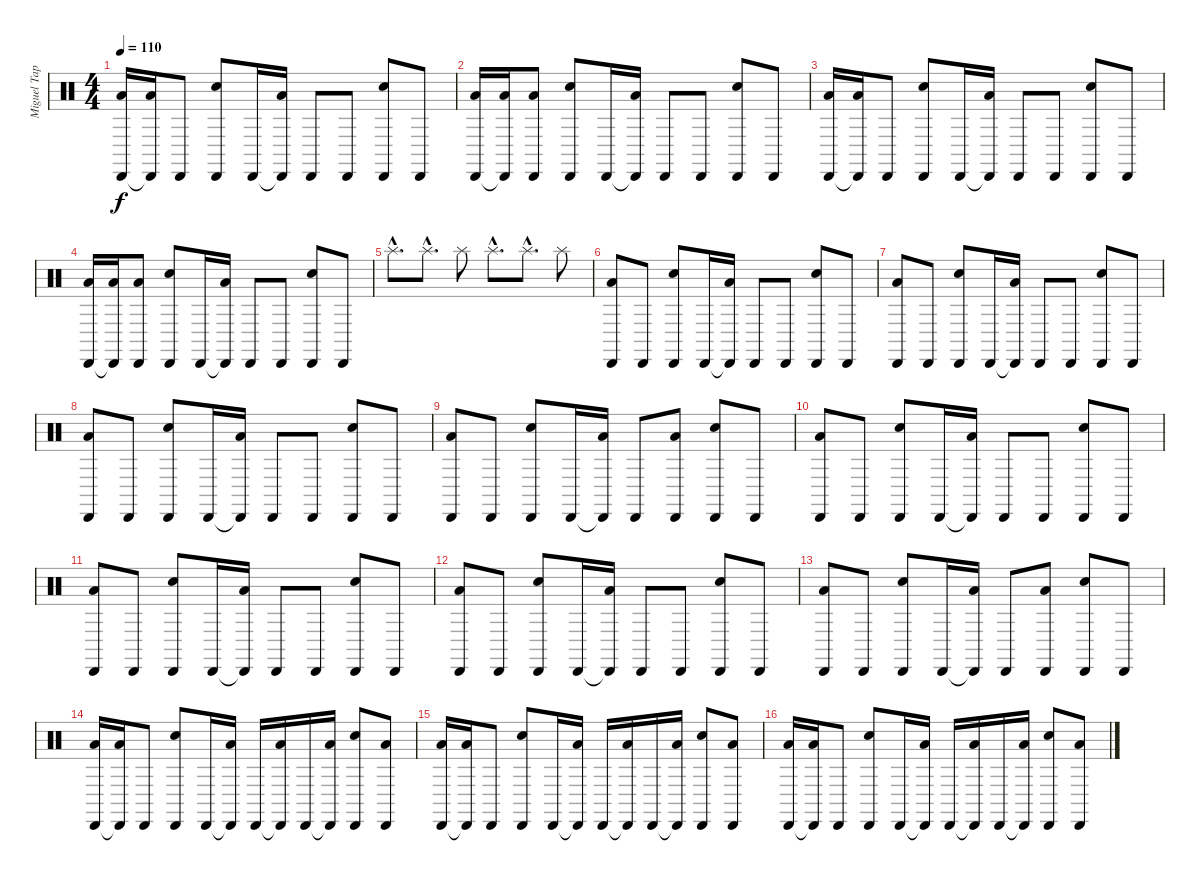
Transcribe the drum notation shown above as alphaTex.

\track ("Miguel Tapia (Bateria)" "Miguel Tap") {instrument percussion}
\staff {score}
\articulation defaults
\ts (4 4)
\tempo 110
\clef neutral
\ks c
("Cabasa (hit)" "Low Tom (hit)").16{dy f} ("Cabasa (hit)"{t} "Low Tom (hit)").16 "Cabasa (hit)".8 ("Cabasa (hit)" "Snare (hit) 2").8 "Cabasa (hit)".16 ("Cabasa (hit)"{t} "Low Tom (hit)").16 "Cabasa (hit)".8 "Cabasa (hit)".8 ("Cabasa (hit)" "Snare (hit) 2").8 "Cabasa (hit)".8 |
("Cabasa (hit)" "Low Tom (hit)").16 ("Cabasa (hit)"{t} "Low Tom (hit)").16 ("Cabasa (hit)" "Low Tom (hit)").8 ("Cabasa (hit)" "Snare (hit) 2").8 "Cabasa (hit)".16 ("Cabasa (hit)"{t} "Low Tom (hit)").16 "Cabasa (hit)".8 "Cabasa (hit)".8 ("Cabasa (hit)" "Snare (hit) 2").8 "Cabasa (hit)".8 |
("Cabasa (hit)" "Low Tom (hit)").16 ("Cabasa (hit)"{t} "Low Tom (hit)").16 "Cabasa (hit)".8 ("Cabasa (hit)" "Snare (hit) 2").8 "Cabasa (hit)".16 ("Cabasa (hit)"{t} "Low Tom (hit)").16 "Cabasa (hit)".8 "Cabasa (hit)".8 ("Cabasa (hit)" "Snare (hit) 2").8 "Cabasa (hit)".8 |
("Cabasa (hit)" "Low Tom (hit)").16 ("Cabasa (hit)"{t} "Low Tom (hit)").16 ("Cabasa (hit)" "Low Tom (hit)").8 ("Cabasa (hit)" "Snare (hit) 2").8 "Cabasa (hit)".16 ("Cabasa (hit)"{t} "Low Tom (hit)").16 "Cabasa (hit)".8 "Cabasa (hit)".8 ("Cabasa (hit)" "Snare (hit) 2").8 "Cabasa (hit)".8 |
"Splash (hit)"{hac}.8{d} "Splash (hit)"{hac}.8{d} "Splash (hit)".8 "Splash (hit)"{hac}.8{d} "Splash (hit)"{hac}.8{d} "Splash (hit)".8 |
("Cabasa (hit)" "Low Tom (hit)").8 "Cabasa (hit)".8 ("Cabasa (hit)" "Snare (hit) 2").8 "Cabasa (hit)".16 ("Cabasa (hit)"{t} "Low Tom (hit)").16 "Cabasa (hit)".8 "Cabasa (hit)".8 ("Cabasa (hit)" "Snare (hit) 2").8 "Cabasa (hit)".8 |
("Cabasa (hit)" "Low Tom (hit)").8 "Cabasa (hit)".8 ("Cabasa (hit)" "Snare (hit) 2").8 "Cabasa (hit)".16 ("Cabasa (hit)"{t} "Low Tom (hit)").16 "Cabasa (hit)".8 "Cabasa (hit)".8 ("Cabasa (hit)" "Snare (hit) 2").8 "Cabasa (hit)".8 |
("Cabasa (hit)" "Low Tom (hit)").8 "Cabasa (hit)".8 ("Cabasa (hit)" "Snare (hit) 2").8 "Cabasa (hit)".16 ("Cabasa (hit)"{t} "Low Tom (hit)").16 "Cabasa (hit)".8 "Cabasa (hit)".8 ("Cabasa (hit)" "Snare (hit) 2").8 "Cabasa (hit)".8 |
("Cabasa (hit)" "Low Tom (hit)").8 "Cabasa (hit)".8 ("Cabasa (hit)" "Snare (hit) 2").8 "Cabasa (hit)".16 ("Cabasa (hit)"{t} "Low Tom (hit)").16 "Cabasa (hit)".8 ("Cabasa (hit)" "Low Tom (hit)").8 ("Cabasa (hit)" "Snare (hit) 2").8 "Cabasa (hit)".8 |
("Cabasa (hit)" "Low Tom (hit)").8 "Cabasa (hit)".8 ("Cabasa (hit)" "Snare (hit) 2").8 "Cabasa (hit)".16 ("Cabasa (hit)"{t} "Low Tom (hit)").16 "Cabasa (hit)".8 "Cabasa (hit)".8 ("Cabasa (hit)" "Snare (hit) 2").8 "Cabasa (hit)".8 |
("Cabasa (hit)" "Low Tom (hit)").8 "Cabasa (hit)".8 ("Cabasa (hit)" "Snare (hit) 2").8 "Cabasa (hit)".16 ("Cabasa (hit)"{t} "Low Tom (hit)").16 "Cabasa (hit)".8 "Cabasa (hit)".8 ("Cabasa (hit)" "Snare (hit) 2").8 "Cabasa (hit)".8 |
("Cabasa (hit)" "Low Tom (hit)").8 "Cabasa (hit)".8 ("Cabasa (hit)" "Snare (hit) 2").8 "Cabasa (hit)".16 ("Cabasa (hit)"{t} "Low Tom (hit)").16 "Cabasa (hit)".8 "Cabasa (hit)".8 ("Cabasa (hit)" "Snare (hit) 2").8 "Cabasa (hit)".8 |
("Cabasa (hit)" "Low Tom (hit)").8 "Cabasa (hit)".8 ("Cabasa (hit)" "Snare (hit) 2").8 "Cabasa (hit)".16 ("Cabasa (hit)"{t} "Low Tom (hit)").16 "Cabasa (hit)".8 ("Cabasa (hit)" "Low Tom (hit)").8 ("Cabasa (hit)" "Snare (hit) 2").8 "Cabasa (hit)".8 |
("Cabasa (hit)" "Low Tom (hit)").16 ("Cabasa (hit)"{t} "Low Tom (hit)").16 "Cabasa (hit)".8 ("Cabasa (hit)" "Snare (hit) 2").8 "Cabasa (hit)".16 ("Cabasa (hit)"{t} "Low Tom (hit)").16 "Cabasa (hit)".16 ("Cabasa (hit)"{t} "Low Tom (hit)").16 "Cabasa (hit)".16 ("Cabasa (hit)"{t} "Low Tom (hit)").16 ("Cabasa (hit)" "Snare (hit) 2").8 ("Cabasa (hit)" "Low Tom (hit)").8 |
("Cabasa (hit)" "Low Tom (hit)").16 ("Cabasa (hit)"{t} "Low Tom (hit)").16 "Cabasa (hit)".8 ("Cabasa (hit)" "Snare (hit) 2").8 "Cabasa (hit)".16 ("Cabasa (hit)"{t} "Low Tom (hit)").16 "Cabasa (hit)".16 ("Cabasa (hit)"{t} "Low Tom (hit)").16 "Cabasa (hit)".16 ("Cabasa (hit)"{t} "Low Tom (hit)").16 ("Cabasa (hit)" "Snare (hit) 2").8 ("Cabasa (hit)" "Low Tom (hit)").8 |
("Cabasa (hit)" "Low Tom (hit)").16 ("Cabasa (hit)"{t} "Low Tom (hit)").16 "Cabasa (hit)".8 ("Cabasa (hit)" "Snare (hit) 2").8 "Cabasa (hit)".16 ("Cabasa (hit)"{t} "Low Tom (hit)").16 "Cabasa (hit)".16 ("Cabasa (hit)"{t} "Low Tom (hit)").16 "Cabasa (hit)".16 ("Cabasa (hit)"{t} "Low Tom (hit)").16 ("Cabasa (hit)" "Snare (hit) 2").8 ("Cabasa (hit)" "Low Tom (hit)").8
